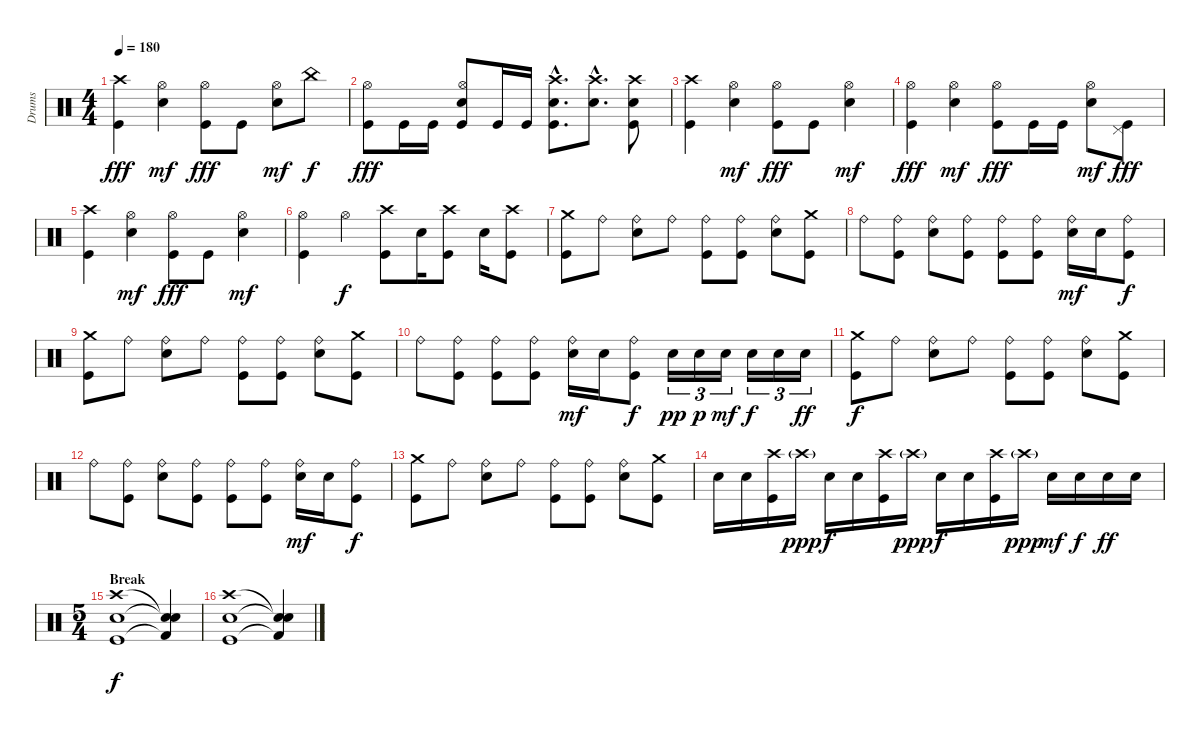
\track ("Drums" "Drums") {instrument percussion}
\staff {score}
\articulation defaults
\ts (4 4)
\tempo 180
\clef neutral
\ks c
("Crash high (hit)" "Kick (hit)").4{dy fff} ("Hi-Hat (open)" "Electric Snare (hit)").4{dy mf} ("Hi-Hat (open)" "Kick (hit)").8{dy fff} "Kick (hit)".8 ("Hi-Hat (open)" "Electric Snare (hit)").8{dy mf} "China (hit)".8{dy f} |
("Hi-Hat (open)" "Kick (hit)").8{dy fff} "Kick (hit)".16 "Kick (hit)".16 ("Hi-Hat (open)" "Electric Snare (hit)" "Kick (hit)").8 "Kick (hit)".16 "Kick (hit)".16 ("Crash high (hit)"{hac} "Electric Snare (hit)"{hac} "Kick (hit)"{hac}).8{d} ("Crash high (hit)"{hac} "Electric Snare (hit)"{hac}).8{d} ("Crash high (hit)" "Electric Snare (hit)" "Kick (hit)").8 |
("Crash high (hit)" "Kick (hit)").4 ("Hi-Hat (open)" "Electric Snare (hit)").4{dy mf} ("Hi-Hat (open)" "Kick (hit)").8{dy fff} "Kick (hit)".8 ("Hi-Hat (open)" "Electric Snare (hit)").4{dy mf} |
("Hi-Hat (open)" "Kick (hit)").4{dy fff} ("Hi-Hat (open)" "Electric Snare (hit)").4{dy mf} ("Hi-Hat (open)" "Kick (hit)").8{dy fff} "Kick (hit)".16 "Kick (hit)".16 ("Hi-Hat (open)" "Electric Snare (hit)").8{dy mf} ("Pedal Hi-Hat (hit)" "Kick (hit)").8{dy fff} |
("Crash high (hit)" "Kick (hit)").4 ("Hi-Hat (open)" "Electric Snare (hit)").4{dy mf} ("Hi-Hat (open)" "Kick (hit)").8{dy fff} "Kick (hit)".8 ("Hi-Hat (open)" "Electric Snare (hit)").4{dy mf} |
("Hi-Hat (open)" "Kick (hit)").4 "Hi-Hat (open)".4{dy f} ("Crash high (hit)" "Kick (hit)").8 "Electric Snare (hit)".16 ("Crash high (hit)" "Kick (hit)").8 "Electric Snare (hit)".16 ("Crash high (hit)" "Kick (hit)").8 |
("Crash medium (hit)" "Kick (hit)").8 "Ride (bell)".8 ("Ride (bell)" "Electric Snare (hit)").8 "Ride (bell)".8 ("Ride (bell)" "Kick (hit)").8 ("Ride (bell)" "Kick (hit)").8 ("Ride (bell)" "Electric Snare (hit)").8 ("Crash medium (hit)" "Kick (hit)").8 |
"Ride (bell)".8 ("Ride (bell)" "Kick (hit)").8 ("Ride (bell)" "Electric Snare (hit)").8 ("Ride (bell)" "Kick (hit)").8 ("Ride (bell)" "Kick (hit)").8 ("Ride (bell)" "Kick (hit)").8 ("Ride (bell)" "Electric Snare (hit)").16{dy mf} "Electric Snare (hit)".16 ("Ride (bell)" "Kick (hit)").8{dy f} |
("Crash medium (hit)" "Kick (hit)").8 "Ride (bell)".8 ("Ride (bell)" "Electric Snare (hit)").8 "Ride (bell)".8 ("Ride (bell)" "Kick (hit)").8 ("Ride (bell)" "Kick (hit)").8 ("Ride (bell)" "Electric Snare (hit)").8 ("Crash medium (hit)" "Kick (hit)").8 |
"Ride (bell)".8 ("Ride (bell)" "Kick (hit)").8 ("Ride (bell)" "Kick (hit)").8 ("Ride (bell)" "Kick (hit)").8 ("Ride (bell)" "Electric Snare (hit)").16{dy mf} "Electric Snare (hit)".16 ("Ride (bell)" "Kick (hit)").8{dy f} "Electric Snare (hit)".16{tu (3 2) dy pp} "Electric Snare (hit)".16{tu (3 2) dy p} "Electric Snare (hit)".16{tu (3 2) dy mf} "Electric Snare (hit)".16{tu (3 2) dy f} "Electric Snare (hit)".16{tu (3 2)} "Electric Snare (hit)".16{tu (3 2) dy ff} |
("Crash medium (hit)" "Kick (hit)").8{dy f} "Ride (bell)".8 ("Ride (bell)" "Electric Snare (hit)").8 "Ride (bell)".8 ("Ride (bell)" "Kick (hit)").8 ("Ride (bell)" "Kick (hit)").8 ("Ride (bell)" "Electric Snare (hit)").8 ("Crash medium (hit)" "Kick (hit)").8 |
"Ride (bell)".8 ("Ride (bell)" "Kick (hit)").8 ("Ride (bell)" "Electric Snare (hit)").8 ("Ride (bell)" "Kick (hit)").8 ("Ride (bell)" "Kick (hit)").8 ("Ride (bell)" "Kick (hit)").8 ("Ride (bell)" "Electric Snare (hit)").16{dy mf} "Electric Snare (hit)".16 ("Ride (bell)" "Kick (hit)").8{dy f} |
("Crash medium (hit)" "Kick (hit)").8 "Ride (bell)".8 ("Ride (bell)" "Electric Snare (hit)").8 "Ride (bell)".8 ("Ride (bell)" "Kick (hit)").8 ("Ride (bell)" "Kick (hit)").8 ("Ride (bell)" "Electric Snare (hit)").8 ("Crash medium (hit)" "Kick (hit)").8 |
"Electric Snare (hit)".16 "Electric Snare (hit)".16 ("Crash high (hit)" "Kick (hit)").16 "Crash high (hit)"{g}.16{dy ppp} "Electric Snare (hit)".16{dy f} "Electric Snare (hit)".16 ("Crash high (hit)" "Kick (hit)").16 "Crash high (hit)"{g}.16{dy ppp} "Electric Snare (hit)".16{dy f} "Electric Snare (hit)".16 ("Crash high (hit)" "Kick (hit)").16 "Crash high (hit)"{g}.16{dy ppp} "Electric Snare (hit)".16{dy mf} "Electric Snare (hit)".16{dy f} "Electric Snare (hit)".16{dy ff} "Electric Snare (hit)".16 |
\ts (5 4)
\section ("" "Break")
("Kick (hit)" "Crash high (hit)" "Electric Snare (hit)").1{dy f} ("Kick (hit) 2"{t} "Snare (hit)"{t} "Snare (hit)"{t}).4 |
("Kick (hit)" "Crash high (hit)" "Electric Snare (hit)").1 ("Kick (hit) 2"{t} "Snare (hit)"{t} "Snare (hit)"{t}).4
